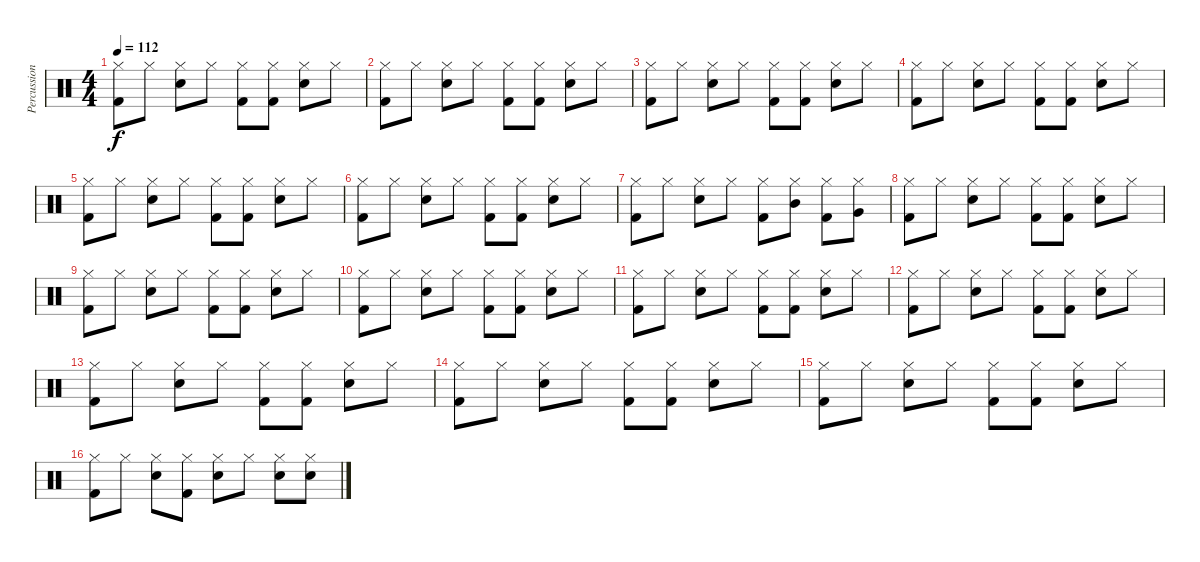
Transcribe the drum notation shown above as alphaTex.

\track ("Percussion" "Percussion") {instrument percussion}
\staff {score}
\articulation defaults
\ts (4 4)
\tempo 112
\clef neutral
\ks c
("Kick (hit) 2" "Hi-Hat (closed)").8{dy f} "Hi-Hat (closed)".8 ("Snare (hit) 2" "Hi-Hat (closed)").8 "Hi-Hat (closed)".8 ("Kick (hit) 2" "Hi-Hat (closed)").8 ("Kick (hit) 2" "Hi-Hat (closed)").8 ("Snare (hit) 2" "Hi-Hat (closed)").8 "Hi-Hat (closed)".8 |
("Kick (hit) 2" "Hi-Hat (closed)").8 "Hi-Hat (closed)".8 ("Snare (hit) 2" "Hi-Hat (closed)").8 "Hi-Hat (closed)".8 ("Kick (hit) 2" "Hi-Hat (closed)").8 ("Kick (hit) 2" "Hi-Hat (closed)").8 ("Snare (hit) 2" "Hi-Hat (closed)").8 "Hi-Hat (closed)".8 |
("Kick (hit) 2" "Hi-Hat (closed)").8 "Hi-Hat (closed)".8 ("Snare (hit) 2" "Hi-Hat (closed)").8 "Hi-Hat (closed)".8 ("Kick (hit) 2" "Hi-Hat (closed)").8 ("Kick (hit) 2" "Hi-Hat (closed)").8 ("Snare (hit) 2" "Hi-Hat (closed)").8 "Hi-Hat (closed)".8 |
("Kick (hit) 2" "Hi-Hat (closed)").8 "Hi-Hat (closed)".8 ("Snare (hit) 2" "Hi-Hat (closed)").8 "Hi-Hat (closed)".8 ("Kick (hit) 2" "Hi-Hat (closed)").8 ("Kick (hit) 2" "Hi-Hat (closed)").8 ("Snare (hit) 2" "Hi-Hat (closed)").8 "Hi-Hat (closed)".8 |
("Kick (hit) 2" "Hi-Hat (closed)").8 "Hi-Hat (closed)".8 ("Snare (hit) 2" "Hi-Hat (closed)").8 "Hi-Hat (closed)".8 ("Kick (hit) 2" "Hi-Hat (closed)").8 ("Kick (hit) 2" "Hi-Hat (closed)").8 ("Snare (hit) 2" "Hi-Hat (closed)").8 "Hi-Hat (closed)".8 |
("Kick (hit) 2" "Hi-Hat (closed)").8 "Hi-Hat (closed)".8 ("Snare (hit) 2" "Hi-Hat (closed)").8 "Hi-Hat (closed)".8 ("Kick (hit) 2" "Hi-Hat (closed)").8 ("Kick (hit) 2" "Hi-Hat (closed)").8 ("Snare (hit) 2" "Hi-Hat (closed)").8 "Hi-Hat (closed)".8 |
("Kick (hit) 2" "Hi-Hat (closed)").8 "Hi-Hat (closed)".8 ("Snare (hit) 2" "Hi-Hat (closed)").8 "Hi-Hat (closed)".8 ("Kick (hit) 2" "Hi-Hat (closed)").8 ("Mid Tom (hit)" "Hi-Hat (closed)").8 ("Kick (hit) 2" "Hi-Hat (closed)").8 ("Very Low Tom (hit)" "Hi-Hat (closed)").8 |
("Kick (hit) 2" "Hi-Hat (closed)").8 "Hi-Hat (closed)".8 ("Snare (hit) 2" "Hi-Hat (closed)").8 "Hi-Hat (closed)".8 ("Kick (hit) 2" "Hi-Hat (closed)").8 ("Kick (hit) 2" "Hi-Hat (closed)").8 ("Snare (hit) 2" "Hi-Hat (closed)").8 "Hi-Hat (closed)".8 |
("Kick (hit) 2" "Hi-Hat (closed)").8 "Hi-Hat (closed)".8 ("Snare (hit) 2" "Hi-Hat (closed)").8 "Hi-Hat (closed)".8 ("Kick (hit) 2" "Hi-Hat (closed)").8 ("Kick (hit) 2" "Hi-Hat (closed)").8 ("Snare (hit) 2" "Hi-Hat (closed)").8 "Hi-Hat (closed)".8 |
("Kick (hit) 2" "Hi-Hat (closed)").8 "Hi-Hat (closed)".8 ("Snare (hit) 2" "Hi-Hat (closed)").8 "Hi-Hat (closed)".8 ("Kick (hit) 2" "Hi-Hat (closed)").8 ("Kick (hit) 2" "Hi-Hat (closed)").8 ("Snare (hit) 2" "Hi-Hat (closed)").8 "Hi-Hat (closed)".8 |
("Kick (hit) 2" "Hi-Hat (closed)").8 "Hi-Hat (closed)".8 ("Snare (hit) 2" "Hi-Hat (closed)").8 "Hi-Hat (closed)".8 ("Kick (hit) 2" "Hi-Hat (closed)").8 ("Kick (hit) 2" "Hi-Hat (closed)").8 ("Snare (hit) 2" "Hi-Hat (closed)").8 "Hi-Hat (closed)".8 |
("Kick (hit) 2" "Hi-Hat (closed)").8 "Hi-Hat (closed)".8 ("Snare (hit) 2" "Hi-Hat (closed)").8 "Hi-Hat (closed)".8 ("Kick (hit) 2" "Hi-Hat (closed)").8 ("Kick (hit) 2" "Hi-Hat (closed)").8 ("Snare (hit) 2" "Hi-Hat (closed)").8 "Hi-Hat (closed)".8 |
("Kick (hit) 2" "Hi-Hat (closed)").8 "Hi-Hat (closed)".8 ("Snare (hit) 2" "Hi-Hat (closed)").8 "Hi-Hat (closed)".8 ("Kick (hit) 2" "Hi-Hat (closed)").8 ("Kick (hit) 2" "Hi-Hat (closed)").8 ("Snare (hit) 2" "Hi-Hat (closed)").8 "Hi-Hat (closed)".8 |
("Kick (hit) 2" "Hi-Hat (closed)").8 "Hi-Hat (closed)".8 ("Snare (hit) 2" "Hi-Hat (closed)").8 "Hi-Hat (closed)".8 ("Kick (hit) 2" "Hi-Hat (closed)").8 ("Kick (hit) 2" "Hi-Hat (closed)").8 ("Snare (hit) 2" "Hi-Hat (closed)").8 "Hi-Hat (closed)".8 |
("Kick (hit) 2" "Hi-Hat (closed)").8 "Hi-Hat (closed)".8 ("Snare (hit) 2" "Hi-Hat (closed)").8 "Hi-Hat (closed)".8 ("Kick (hit) 2" "Hi-Hat (closed)").8 ("Kick (hit) 2" "Hi-Hat (closed)").8 ("Snare (hit) 2" "Hi-Hat (closed)").8 "Hi-Hat (closed)".8 |
("Kick (hit) 2" "Hi-Hat (closed)").8 "Hi-Hat (closed)".8 ("Snare (hit) 2" "Hi-Hat (closed)").8 ("Kick (hit) 2" "Hi-Hat (closed)").8 ("Snare (hit) 2" "Hi-Hat (closed)").8 "Hi-Hat (closed)".8 ("Snare (hit) 2" "Hi-Hat (closed)").8 ("Snare (hit) 2" "Hi-Hat (closed)").8
